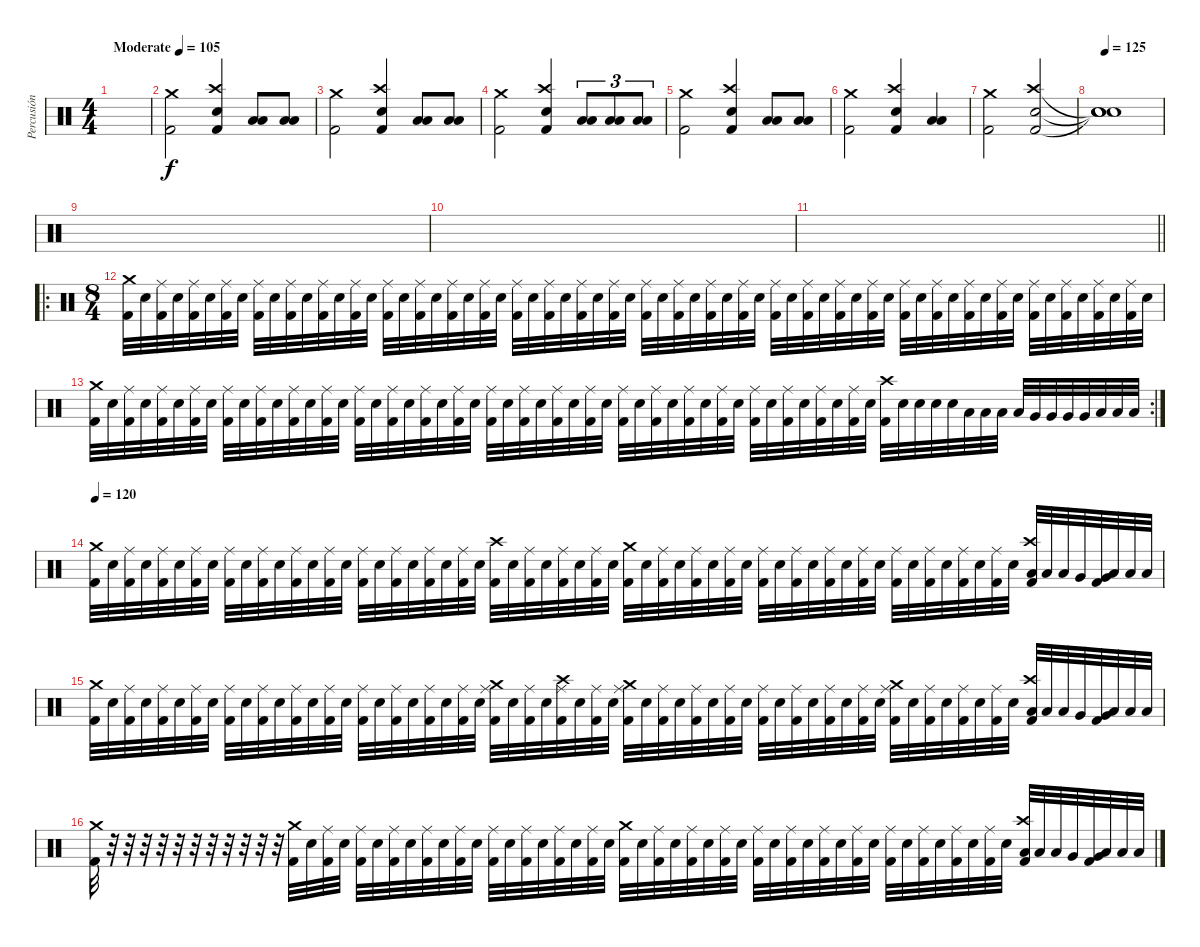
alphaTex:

\track ("Percusión" "Percusión") {instrument percussion}
\staff {score}
\articulation defaults
\ts (4 4)
\tempo (105 "Moderate")
\clef neutral
\ks c
|
("Crash medium (hit)" "Kick (hit) 2").2 ("Crash high (hit)" "Electric Snare (hit)" "Kick (hit) 2").4 ("Low Tom (hit)" "Low Floor Tom (hit)").8 ("Low Tom (hit)" "Low Floor Tom (hit)").8 |
("Crash medium (hit)" "Kick (hit) 2").2 ("Crash high (hit)" "Electric Snare (hit)" "Kick (hit) 2").4 ("Low Tom (hit)" "Low Floor Tom (hit)").8 ("Low Tom (hit)" "Low Floor Tom (hit)").8 |
("Crash medium (hit)" "Kick (hit) 2").2 ("Crash high (hit)" "Electric Snare (hit)" "Kick (hit) 2").4 ("Low Tom (hit)" "Low Floor Tom (hit)").8{tu (3 2)} ("Low Tom (hit)" "Low Floor Tom (hit)").8{tu (3 2)} ("Low Tom (hit)" "Low Floor Tom (hit)").8{tu (3 2)} |
("Crash medium (hit)" "Kick (hit) 2").2 ("Crash high (hit)" "Electric Snare (hit)" "Kick (hit) 2").4 ("Low Tom (hit)" "Low Floor Tom (hit)").8 ("Low Tom (hit)" "Low Floor Tom (hit)").8 |
("Crash medium (hit)" "Kick (hit) 2").2 ("Crash high (hit)" "Electric Snare (hit)" "Kick (hit) 2").4 ("Low Tom (hit)" "Low Floor Tom (hit)").4 |
("Crash medium (hit)" "Kick (hit) 2").2 ("Crash high (hit)" "Electric Snare (hit)" "Kick (hit) 2").2 |
\tempo 125
("Snare (hit)"{t} "Snare (hit)"{t} "Snare (hit)"{t}).1 |
|
|
\barLineRight lightlight
|
\ro
\ts (8 4)
("Crash medium (hit)" "Kick (hit) 2").32 "Electric Snare (hit)".32 ("Ride (middle)" "Kick (hit) 2").32 "Electric Snare (hit)".32 ("Ride (middle)" "Kick (hit) 2").32 "Electric Snare (hit)".32 ("Ride (middle)" "Kick (hit) 2").32 "Electric Snare (hit)".32 ("Ride (middle)" "Kick (hit) 2").32 "Electric Snare (hit)".32 ("Ride (middle)" "Kick (hit) 2").32 "Electric Snare (hit)".32 ("Ride (middle)" "Kick (hit) 2").32 "Electric Snare (hit)".32 ("Ride (middle)" "Kick (hit) 2").32 "Electric Snare (hit)".32 ("Ride (middle)" "Kick (hit) 2").32 "Electric Snare (hit)".32 ("Ride (middle)" "Kick (hit) 2").32 "Electric Snare (hit)".32 ("Ride (middle)" "Kick (hit) 2").32 "Electric Snare (hit)".32 ("Ride (middle)" "Kick (hit) 2").32 "Electric Snare (hit)".32 ("Ride (middle)" "Kick (hit) 2").32 "Electric Snare (hit)".32 ("Ride (middle)" "Kick (hit) 2").32 "Electric Snare (hit)".32 ("Ride (middle)" "Kick (hit) 2").32 "Electric Snare (hit)".32 ("Ride (middle)" "Kick (hit) 2").32 "Electric Snare (hit)".32 ("Ride (middle)" "Kick (hit) 2").32 "Electric Snare (hit)".32 ("Ride (middle)" "Kick (hit) 2").32 "Electric Snare (hit)".32 ("Ride (middle)" "Kick (hit) 2").32 "Electric Snare (hit)".32 ("Ride (middle)" "Kick (hit) 2").32 "Electric Snare (hit)".32 ("Ride (middle)" "Kick (hit) 2").32 "Electric Snare (hit)".32 ("Ride (middle)" "Kick (hit) 2").32 "Electric Snare (hit)".32 ("Ride (middle)" "Kick (hit) 2").32 "Electric Snare (hit)".32 ("Ride (middle)" "Kick (hit) 2").32 "Electric Snare (hit)".32 ("Ride (middle)" "Kick (hit) 2").32 "Electric Snare (hit)".32 ("Ride (middle)" "Kick (hit) 2").32 "Electric Snare (hit)".32 ("Ride (middle)" "Kick (hit) 2").32 "Electric Snare (hit)".32 ("Ride (middle)" "Kick (hit) 2").32 "Electric Snare (hit)".32 ("Ride (middle)" "Kick (hit) 2").32 "Electric Snare (hit)".32 ("Ride (middle)" "Kick (hit) 2").32 "Electric Snare (hit)".32 ("Ride (middle)" "Kick (hit) 2").32 "Electric Snare (hit)".32 ("Ride (middle)" "Kick (hit) 2").32 "Electric Snare (hit)".32 |
\rc 2
("Crash medium (hit)" "Kick (hit) 2").32 "Electric Snare (hit)".32 ("Ride (middle)" "Kick (hit) 2").32 "Electric Snare (hit)".32 ("Ride (middle)" "Kick (hit) 2").32 "Electric Snare (hit)".32 ("Ride (middle)" "Kick (hit) 2").32 "Electric Snare (hit)".32 ("Ride (middle)" "Kick (hit) 2").32 "Electric Snare (hit)".32 ("Ride (middle)" "Kick (hit) 2").32 "Electric Snare (hit)".32 ("Ride (middle)" "Kick (hit) 2").32 "Electric Snare (hit)".32 ("Ride (middle)" "Kick (hit) 2").32 "Electric Snare (hit)".32 ("Ride (middle)" "Kick (hit) 2").32 "Electric Snare (hit)".32 ("Ride (middle)" "Kick (hit) 2").32 "Electric Snare (hit)".32 ("Ride (middle)" "Kick (hit) 2").32 "Electric Snare (hit)".32 ("Ride (middle)" "Kick (hit) 2").32 "Electric Snare (hit)".32 ("Ride (middle)" "Kick (hit) 2").32 "Electric Snare (hit)".32 ("Ride (middle)" "Kick (hit) 2").32 "Electric Snare (hit)".32 ("Ride (middle)" "Kick (hit) 2").32 "Electric Snare (hit)".32 ("Ride (middle)" "Kick (hit) 2").32 "Electric Snare (hit)".32 ("Ride (middle)" "Kick (hit) 2").32 "Electric Snare (hit)".32 ("Ride (middle)" "Kick (hit) 2").32 "Electric Snare (hit)".32 ("Ride (middle)" "Kick (hit) 2").32 "Electric Snare (hit)".32 ("Ride (middle)" "Kick (hit) 2").32 "Electric Snare (hit)".32 ("Ride (middle)" "Kick (hit) 2").32 "Electric Snare (hit)".32 ("Ride (middle)" "Kick (hit) 2").32 "Electric Snare (hit)".32 ("Ride (middle)" "Kick (hit) 2").32 "Electric Snare (hit)".32 ("Ride (middle)" "Kick (hit) 2").32 "Electric Snare (hit)".32 ("Crash high (hit)" "Kick (hit) 2").32 "Electric Snare (hit)".32 "Electric Snare (hit)".32 "Electric Snare (hit)".32 "Electric Snare (hit)".32 "Low Tom (hit)".32 "Low Tom (hit)".32 "Low Tom (hit)".32 "Low Tom (hit)".32 "Very Low Tom (hit)".32 "Very Low Tom (hit)".32 "Very Low Tom (hit)".32 "Very Low Tom (hit)".32 "Low Floor Tom (hit)".32 "Low Floor Tom (hit)".32 "Low Floor Tom (hit)".32 |
\tempo 120
("Crash medium (hit)" "Kick (hit) 2").32 "Electric Snare (hit)".32 ("Ride (middle)" "Kick (hit) 2").32 "Electric Snare (hit)".32 ("Ride (middle)" "Kick (hit) 2").32 "Electric Snare (hit)".32 ("Ride (middle)" "Kick (hit) 2").32 "Electric Snare (hit)".32 ("Ride (middle)" "Kick (hit) 2").32 "Electric Snare (hit)".32 ("Ride (middle)" "Kick (hit) 2").32 "Electric Snare (hit)".32 ("Ride (middle)" "Kick (hit) 2").32 "Electric Snare (hit)".32 ("Ride (middle)" "Kick (hit) 2").32 "Electric Snare (hit)".32 ("Ride (middle)" "Kick (hit) 2").32 "Electric Snare (hit)".32 ("Ride (middle)" "Kick (hit) 2").32 "Electric Snare (hit)".32 ("Ride (middle)" "Kick (hit) 2").32 "Electric Snare (hit)".32 ("Ride (middle)" "Kick (hit) 2").32 "Electric Snare (hit)".32 ("Crash high (hit)" "Kick (hit) 2").32 "Electric Snare (hit)".32 ("Ride (middle)" "Kick (hit) 2").32 "Electric Snare (hit)".32 ("Ride (middle)" "Kick (hit) 2").32 "Electric Snare (hit)".32 ("Ride (middle)" "Kick (hit) 2").32 "Electric Snare (hit)".32 ("Crash medium (hit)" "Kick (hit) 2").32 "Electric Snare (hit)".32 ("Ride (middle)" "Kick (hit) 2").32 "Electric Snare (hit)".32 ("Ride (middle)" "Kick (hit) 2").32 "Electric Snare (hit)".32 ("Ride (middle)" "Kick (hit) 2").32 "Electric Snare (hit)".32 ("Ride (middle)" "Kick (hit) 2").32 "Electric Snare (hit)".32 ("Ride (middle)" "Kick (hit) 2").32 "Electric Snare (hit)".32 ("Ride (middle)" "Kick (hit) 2").32 "Electric Snare (hit)".32 ("Ride (middle)" "Kick (hit) 2").32 "Electric Snare (hit)".32 ("Ride (middle)" "Kick (hit) 2").32 "Electric Snare (hit)".32 ("Ride (middle)" "Kick (hit) 2").32 "Electric Snare (hit)".32 ("Ride (middle)" "Kick (hit) 2").32 "Electric Snare (hit)".32 ("Ride (middle)" "Kick (hit) 2").32 "Electric Snare (hit)".32 ("Crash high (hit)" "Low Tom (hit)" "Kick (hit) 2").32 "Low Tom (hit)".32 "Low Tom (hit)".32 "Very Low Tom (hit)".32 ("Very Low Tom (hit)" "Kick (hit) 2").32 "Low Floor Tom (hit)".32 "Low Floor Tom (hit)".32 "Low Floor Tom (hit)".32 |
("Crash medium (hit)" "Kick (hit) 2").32 "Electric Snare (hit)".32 ("Ride (middle)" "Kick (hit) 2").32 "Electric Snare (hit)".32 ("Ride (middle)" "Kick (hit) 2").32 "Electric Snare (hit)".32 ("Ride (middle)" "Kick (hit) 2").32 "Electric Snare (hit)".32 ("Ride (middle)" "Kick (hit) 2").32 "Electric Snare (hit)".32 ("Ride (middle)" "Kick (hit) 2").32 "Electric Snare (hit)".32 ("Ride (middle)" "Kick (hit) 2").32 "Electric Snare (hit)".32 ("Ride (middle)" "Kick (hit) 2").32 "Electric Snare (hit)".32 ("Ride (middle)" "Kick (hit) 2").32 "Electric Snare (hit)".32 ("Ride (middle)" "Kick (hit) 2").32 "Electric Snare (hit)".32 ("Ride (middle)" "Kick (hit) 2").32 "Electric Snare (hit)".32 ("Ride (middle)" "Kick (hit) 2").32 "Electric Snare (hit)".32 ("Crash medium (hit)" "Ride (middle)" "Kick (hit) 2").32 "Electric Snare (hit)".32 ("Ride (middle)" "Kick (hit) 2").32 "Electric Snare (hit)".32 ("Crash high (hit)" "Ride (middle)" "Kick (hit) 2").32 "Electric Snare (hit)".32 ("Ride (middle)" "Kick (hit) 2").32 "Electric Snare (hit)".32 ("Crash medium (hit)" "Ride (middle)" "Kick (hit) 2").32 "Electric Snare (hit)".32 ("Ride (middle)" "Kick (hit) 2").32 "Electric Snare (hit)".32 ("Ride (middle)" "Kick (hit) 2").32 "Electric Snare (hit)".32 ("Ride (middle)" "Kick (hit) 2").32 "Electric Snare (hit)".32 ("Ride (middle)" "Kick (hit) 2").32 "Electric Snare (hit)".32 ("Ride (middle)" "Kick (hit) 2").32 "Electric Snare (hit)".32 ("Ride (middle)" "Kick (hit) 2").32 "Electric Snare (hit)".32 ("Ride (middle)" "Kick (hit) 2").32 "Electric Snare (hit)".32 ("Crash medium (hit)" "Ride (middle)" "Kick (hit) 2").32 "Electric Snare (hit)".32 ("Ride (middle)" "Kick (hit) 2").32 "Electric Snare (hit)".32 ("Ride (middle)" "Kick (hit) 2").32 "Electric Snare (hit)".32 ("Ride (middle)" "Kick (hit) 2").32 "Electric Snare (hit)".32 ("Crash high (hit)" "Low Tom (hit)" "Kick (hit) 2").32 "Low Tom (hit)".32 "Low Tom (hit)".32 "Very Low Tom (hit)".32 ("Very Low Tom (hit)" "Kick (hit) 2").32 "Low Floor Tom (hit)".32 "Low Floor Tom (hit)".32 "Low Floor Tom (hit)".32 |
("Crash medium (hit)" "Kick (hit) 2").32 r.32 r.32 r.32 r.32 r.32 r.32 r.32 r.32 r.32 r.32 r.32 ("Crash medium (hit)" "Kick (hit) 2").32 "Electric Snare (hit)".32 ("Ride (middle)" "Kick (hit) 2").32 "Electric Snare (hit)".32 ("Ride (middle)" "Kick (hit) 2").32 "Electric Snare (hit)".32 ("Ride (middle)" "Kick (hit) 2").32 "Electric Snare (hit)".32 ("Ride (middle)" "Kick (hit) 2").32 "Electric Snare (hit)".32 ("Ride (middle)" "Kick (hit) 2").32 "Electric Snare (hit)".32 ("Ride (middle)" "Kick (hit) 2").32 "Electric Snare (hit)".32 ("Ride (middle)" "Kick (hit) 2").32 "Electric Snare (hit)".32 ("Ride (middle)" "Kick (hit) 2").32 "Electric Snare (hit)".32 ("Ride (middle)" "Kick (hit) 2").32 "Electric Snare (hit)".32 ("Crash medium (hit)" "Kick (hit) 2").32 "Electric Snare (hit)".32 ("Ride (middle)" "Kick (hit) 2").32 "Electric Snare (hit)".32 ("Ride (middle)" "Kick (hit) 2").32 "Electric Snare (hit)".32 ("Ride (middle)" "Kick (hit) 2").32 "Electric Snare (hit)".32 ("Ride (middle)" "Kick (hit) 2").32 "Electric Snare (hit)".32 ("Ride (middle)" "Kick (hit) 2").32 "Electric Snare (hit)".32 ("Ride (middle)" "Kick (hit) 2").32 "Electric Snare (hit)".32 ("Ride (middle)" "Kick (hit) 2").32 "Electric Snare (hit)".32 ("Ride (middle)" "Kick (hit) 2").32 "Electric Snare (hit)".32 ("Ride (middle)" "Kick (hit) 2").32 "Electric Snare (hit)".32 ("Ride (middle)" "Kick (hit) 2").32 "Electric Snare (hit)".32 ("Ride (middle)" "Kick (hit) 2").32 "Electric Snare (hit)".32 ("Crash high (hit)" "Low Tom (hit)" "Kick (hit) 2").32 "Low Tom (hit)".32 "Low Tom (hit)".32 "Very Low Tom (hit)".32 ("Very Low Tom (hit)" "Kick (hit) 2").32 "Low Floor Tom (hit)".32 "Low Floor Tom (hit)".32 "Low Floor Tom (hit)".32
